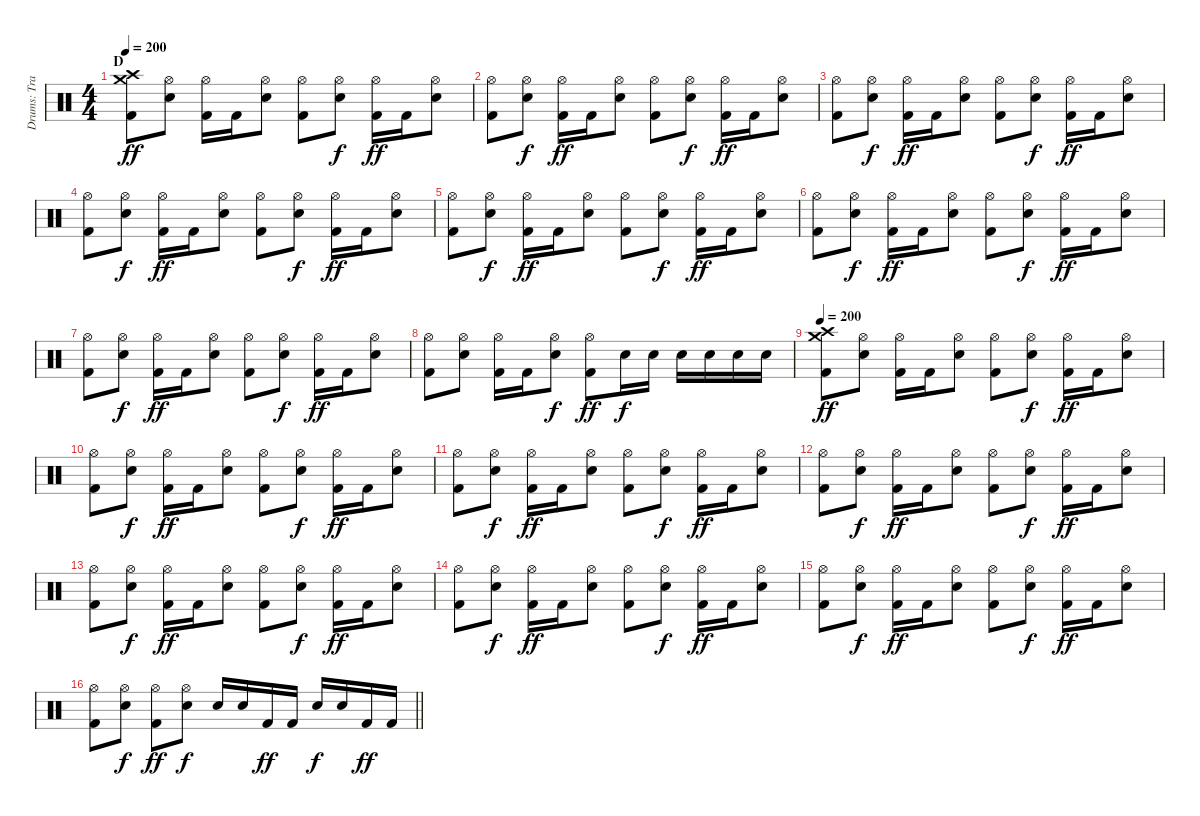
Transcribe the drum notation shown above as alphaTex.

\track ("Drums: Travis Clarke" "Drums: Tra") {instrument percussion}
\staff {score}
\articulation defaults
\ts (4 4)
\section ("" "D")
\tempo 200
\clef neutral
\ks c
("Kick (hit) 2" "Crash high (hit)" "Crash medium (hit)").8{dy ff} ("Snare (hit) 2" "Hi-Hat (open)").8 ("Kick (hit) 2" "Hi-Hat (open)").16 "Kick (hit) 2".16 ("Snare (hit) 2" "Hi-Hat (open)").8 ("Kick (hit) 2" "Hi-Hat (open)").8 ("Snare (hit) 2" "Hi-Hat (open)").8{dy f} ("Kick (hit) 2" "Hi-Hat (open)").16{dy ff} "Kick (hit) 2".16 ("Snare (hit) 2" "Hi-Hat (open)").8 |
("Kick (hit) 2" "Hi-Hat (open)").8 ("Snare (hit) 2" "Hi-Hat (open)").8{dy f} ("Kick (hit) 2" "Hi-Hat (open)").16{dy ff} "Kick (hit) 2".16 ("Snare (hit) 2" "Hi-Hat (open)").8 ("Kick (hit) 2" "Hi-Hat (open)").8 ("Snare (hit) 2" "Hi-Hat (open)").8{dy f} ("Kick (hit) 2" "Hi-Hat (open)").16{dy ff} "Kick (hit) 2".16 ("Snare (hit) 2" "Hi-Hat (open)").8 |
("Kick (hit) 2" "Hi-Hat (open)").8 ("Snare (hit) 2" "Hi-Hat (open)").8{dy f} ("Kick (hit) 2" "Hi-Hat (open)").16{dy ff} "Kick (hit) 2".16 ("Snare (hit) 2" "Hi-Hat (open)").8 ("Kick (hit) 2" "Hi-Hat (open)").8 ("Snare (hit) 2" "Hi-Hat (open)").8{dy f} ("Kick (hit) 2" "Hi-Hat (open)").16{dy ff} "Kick (hit) 2".16 ("Snare (hit) 2" "Hi-Hat (open)").8 |
("Kick (hit) 2" "Hi-Hat (open)").8 ("Snare (hit) 2" "Hi-Hat (open)").8{dy f} ("Kick (hit) 2" "Hi-Hat (open)").16{dy ff} "Kick (hit) 2".16 ("Snare (hit) 2" "Hi-Hat (open)").8 ("Kick (hit) 2" "Hi-Hat (open)").8 ("Snare (hit) 2" "Hi-Hat (open)").8{dy f} ("Kick (hit) 2" "Hi-Hat (open)").16{dy ff} "Kick (hit) 2".16 ("Snare (hit) 2" "Hi-Hat (open)").8 |
("Kick (hit) 2" "Hi-Hat (open)").8 ("Snare (hit) 2" "Hi-Hat (open)").8{dy f} ("Kick (hit) 2" "Hi-Hat (open)").16{dy ff} "Kick (hit) 2".16 ("Snare (hit) 2" "Hi-Hat (open)").8 ("Kick (hit) 2" "Hi-Hat (open)").8 ("Snare (hit) 2" "Hi-Hat (open)").8{dy f} ("Kick (hit) 2" "Hi-Hat (open)").16{dy ff} "Kick (hit) 2".16 ("Snare (hit) 2" "Hi-Hat (open)").8 |
("Kick (hit) 2" "Hi-Hat (open)").8 ("Snare (hit) 2" "Hi-Hat (open)").8{dy f} ("Kick (hit) 2" "Hi-Hat (open)").16{dy ff} "Kick (hit) 2".16 ("Snare (hit) 2" "Hi-Hat (open)").8 ("Kick (hit) 2" "Hi-Hat (open)").8 ("Snare (hit) 2" "Hi-Hat (open)").8{dy f} ("Kick (hit) 2" "Hi-Hat (open)").16{dy ff} "Kick (hit) 2".16 ("Snare (hit) 2" "Hi-Hat (open)").8 |
("Kick (hit) 2" "Hi-Hat (open)").8 ("Snare (hit) 2" "Hi-Hat (open)").8{dy f} ("Kick (hit) 2" "Hi-Hat (open)").16{dy ff} "Kick (hit) 2".16 ("Snare (hit) 2" "Hi-Hat (open)").8 ("Kick (hit) 2" "Hi-Hat (open)").8 ("Snare (hit) 2" "Hi-Hat (open)").8{dy f} ("Kick (hit) 2" "Hi-Hat (open)").16{dy ff} "Kick (hit) 2".16 ("Snare (hit) 2" "Hi-Hat (open)").8 |
("Kick (hit) 2" "Hi-Hat (open)").8 ("Snare (hit) 2" "Hi-Hat (open)").8 ("Kick (hit) 2" "Hi-Hat (open)").16 "Kick (hit) 2".16 ("Snare (hit) 2" "Hi-Hat (open)").8{dy f} ("Kick (hit) 2" "Hi-Hat (open)").8{dy ff} "Snare (hit) 2".16{dy f} "Snare (hit) 2".16 "Snare (hit) 2".16 "Snare (hit) 2".16 "Snare (hit) 2".16 "Snare (hit) 2".16 |
\tempo 200
("Kick (hit) 2" "Crash high (hit)" "Crash medium (hit)").8{dy ff} ("Snare (hit) 2" "Hi-Hat (open)").8 ("Kick (hit) 2" "Hi-Hat (open)").16 "Kick (hit) 2".16 ("Snare (hit) 2" "Hi-Hat (open)").8 ("Kick (hit) 2" "Hi-Hat (open)").8 ("Snare (hit) 2" "Hi-Hat (open)").8{dy f} ("Kick (hit) 2" "Hi-Hat (open)").16{dy ff} "Kick (hit) 2".16 ("Snare (hit) 2" "Hi-Hat (open)").8 |
("Kick (hit) 2" "Hi-Hat (open)").8 ("Snare (hit) 2" "Hi-Hat (open)").8{dy f} ("Kick (hit) 2" "Hi-Hat (open)").16{dy ff} "Kick (hit) 2".16 ("Snare (hit) 2" "Hi-Hat (open)").8 ("Kick (hit) 2" "Hi-Hat (open)").8 ("Snare (hit) 2" "Hi-Hat (open)").8{dy f} ("Kick (hit) 2" "Hi-Hat (open)").16{dy ff} "Kick (hit) 2".16 ("Snare (hit) 2" "Hi-Hat (open)").8 |
("Kick (hit) 2" "Hi-Hat (open)").8 ("Snare (hit) 2" "Hi-Hat (open)").8{dy f} ("Kick (hit) 2" "Hi-Hat (open)").16{dy ff} "Kick (hit) 2".16 ("Snare (hit) 2" "Hi-Hat (open)").8 ("Kick (hit) 2" "Hi-Hat (open)").8 ("Snare (hit) 2" "Hi-Hat (open)").8{dy f} ("Kick (hit) 2" "Hi-Hat (open)").16{dy ff} "Kick (hit) 2".16 ("Snare (hit) 2" "Hi-Hat (open)").8 |
("Kick (hit) 2" "Hi-Hat (open)").8 ("Snare (hit) 2" "Hi-Hat (open)").8{dy f} ("Kick (hit) 2" "Hi-Hat (open)").16{dy ff} "Kick (hit) 2".16 ("Snare (hit) 2" "Hi-Hat (open)").8 ("Kick (hit) 2" "Hi-Hat (open)").8 ("Snare (hit) 2" "Hi-Hat (open)").8{dy f} ("Kick (hit) 2" "Hi-Hat (open)").16{dy ff} "Kick (hit) 2".16 ("Snare (hit) 2" "Hi-Hat (open)").8 |
("Kick (hit) 2" "Hi-Hat (open)").8 ("Snare (hit) 2" "Hi-Hat (open)").8{dy f} ("Kick (hit) 2" "Hi-Hat (open)").16{dy ff} "Kick (hit) 2".16 ("Snare (hit) 2" "Hi-Hat (open)").8 ("Kick (hit) 2" "Hi-Hat (open)").8 ("Snare (hit) 2" "Hi-Hat (open)").8{dy f} ("Kick (hit) 2" "Hi-Hat (open)").16{dy ff} "Kick (hit) 2".16 ("Snare (hit) 2" "Hi-Hat (open)").8 |
("Kick (hit) 2" "Hi-Hat (open)").8 ("Snare (hit) 2" "Hi-Hat (open)").8{dy f} ("Kick (hit) 2" "Hi-Hat (open)").16{dy ff} "Kick (hit) 2".16 ("Snare (hit) 2" "Hi-Hat (open)").8 ("Kick (hit) 2" "Hi-Hat (open)").8 ("Snare (hit) 2" "Hi-Hat (open)").8{dy f} ("Kick (hit) 2" "Hi-Hat (open)").16{dy ff} "Kick (hit) 2".16 ("Snare (hit) 2" "Hi-Hat (open)").8 |
("Kick (hit) 2" "Hi-Hat (open)").8 ("Snare (hit) 2" "Hi-Hat (open)").8{dy f} ("Kick (hit) 2" "Hi-Hat (open)").16{dy ff} "Kick (hit) 2".16 ("Snare (hit) 2" "Hi-Hat (open)").8 ("Kick (hit) 2" "Hi-Hat (open)").8 ("Snare (hit) 2" "Hi-Hat (open)").8{dy f} ("Kick (hit) 2" "Hi-Hat (open)").16{dy ff} "Kick (hit) 2".16 ("Snare (hit) 2" "Hi-Hat (open)").8 |
\barLineRight lightlight
("Kick (hit) 2" "Hi-Hat (open)").8 ("Snare (hit) 2" "Hi-Hat (open)").8{dy f} ("Kick (hit) 2" "Hi-Hat (open)").8{dy ff} ("Snare (hit) 2" "Hi-Hat (open)").8{dy f} "Snare (hit) 2".16 "Snare (hit) 2".16 "Kick (hit) 2".16{dy ff} "Kick (hit) 2".16 "Snare (hit) 2".16{dy f} "Snare (hit) 2".16 "Kick (hit) 2".16{dy ff} "Kick (hit) 2".16
